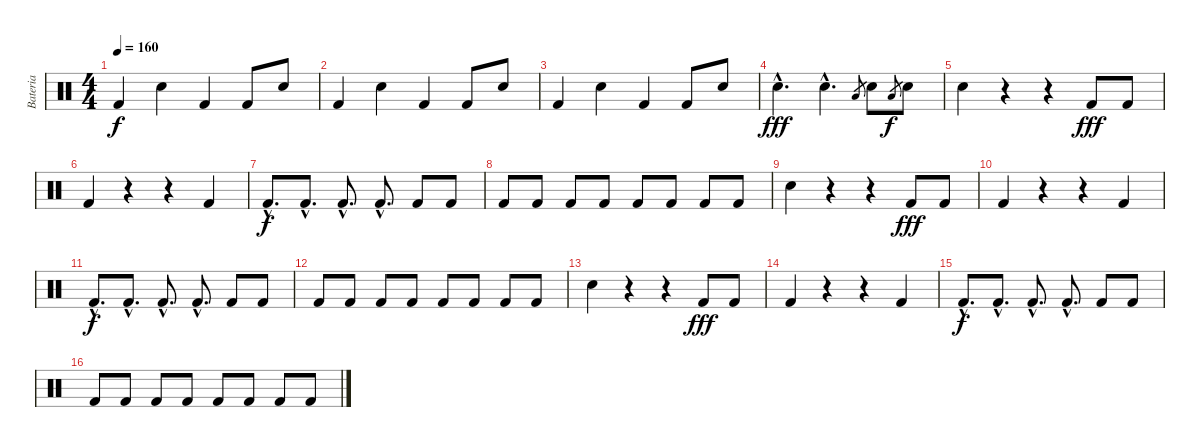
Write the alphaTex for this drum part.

\track ("Bateria" "Bateria") {instrument percussion}
\staff {score}
\articulation defaults
\ts (4 4)
\tempo 160
\clef neutral
\ks c "Kick (hit) 2".4{dy f} "Snare (hit) 2".4 "Kick (hit) 2".4 "Kick (hit) 2".8 "Snare (hit) 2".8
|
"Kick (hit) 2".4 "Snare (hit) 2".4 "Kick (hit) 2".4 "Kick (hit) 2".8 "Snare (hit) 2".8 |
"Kick (hit) 2".4 "Snare (hit) 2".4 "Kick (hit) 2".4 "Kick (hit) 2".8 "Snare (hit) 2".8 |
"Electric Snare (hit)"{hac pm}.4{d dy fff} "Electric Snare (hit)"{hac pm}.4{d} "Low Tom (hit)".8{gr} "Electric Snare (hit)"{pm}.8 "Low Tom (hit)".8{gr dy f} "Electric Snare (hit)"{pm}.8 |
"Snare (hit) 2".4 r.4 r.4 "Kick (hit) 2".8{dy fff} "Kick (hit) 2".8 |
"Kick (hit) 2".4 r.4 r.4 "Kick (hit) 2".4 |
"Kick (hit) 2"{hac}.8{d dy f} "Kick (hit) 2"{hac}.8{d} "Kick (hit) 2"{hac}.8{d} "Kick (hit) 2"{hac}.8{d} "Kick (hit) 2".8 "Kick (hit) 2".8 |
"Kick (hit) 2".8 "Kick (hit) 2".8 "Kick (hit) 2".8 "Kick (hit) 2".8 "Kick (hit) 2".8 "Kick (hit) 2".8 "Kick (hit) 2".8 "Kick (hit) 2".8 |
"Snare (hit) 2".4 r.4 r.4 "Kick (hit) 2".8{dy fff} "Kick (hit) 2".8 |
"Kick (hit) 2".4 r.4 r.4 "Kick (hit) 2".4 |
"Kick (hit) 2"{hac}.8{d dy f} "Kick (hit) 2"{hac}.8{d} "Kick (hit) 2"{hac}.8{d} "Kick (hit) 2"{hac}.8{d} "Kick (hit) 2".8 "Kick (hit) 2".8 |
"Kick (hit) 2".8 "Kick (hit) 2".8 "Kick (hit) 2".8 "Kick (hit) 2".8 "Kick (hit) 2".8 "Kick (hit) 2".8 "Kick (hit) 2".8 "Kick (hit) 2".8 |
"Snare (hit) 2".4 r.4 r.4 "Kick (hit) 2".8{dy fff} "Kick (hit) 2".8 |
"Kick (hit) 2".4 r.4 r.4 "Kick (hit) 2".4 |
"Kick (hit) 2"{hac}.8{d dy f} "Kick (hit) 2"{hac}.8{d} "Kick (hit) 2"{hac}.8{d} "Kick (hit) 2"{hac}.8{d} "Kick (hit) 2".8 "Kick (hit) 2".8 |
"Kick (hit) 2".8 "Kick (hit) 2".8 "Kick (hit) 2".8 "Kick (hit) 2".8 "Kick (hit) 2".8 "Kick (hit) 2".8 "Kick (hit) 2".8 "Kick (hit) 2".8
